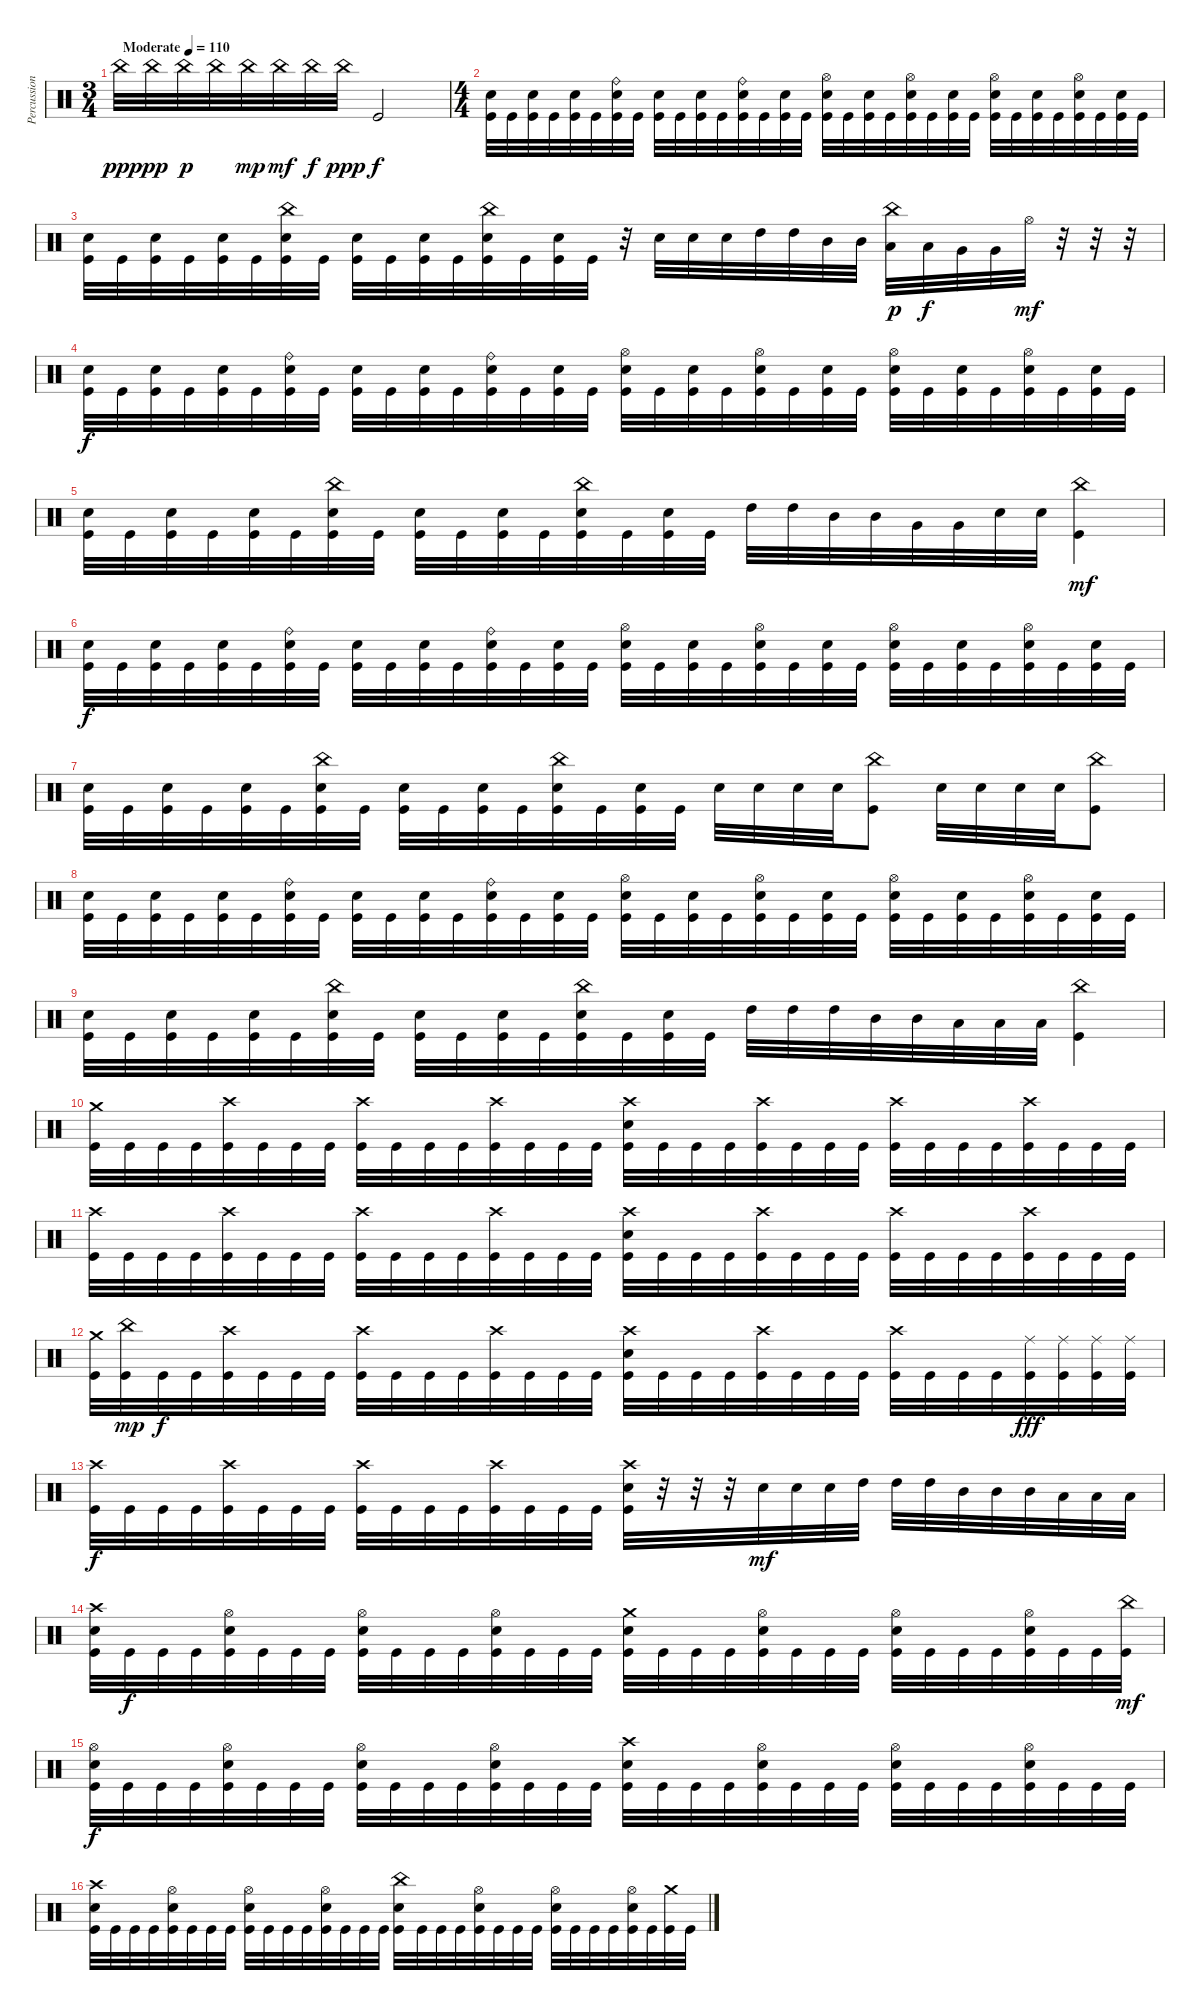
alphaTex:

\track ("Percussion" "Percussion") {instrument percussion}
\staff {score}
\articulation defaults
\ts (3 4)
\tempo (110 "Moderate")
\clef neutral
\ks c "China (hit)".32{dy ppp} "China (hit)".32{dy pp} "China (hit)".32{dy p} "China (hit)".32 "China (hit)".32{dy mp} "China (hit)".32{dy mf} "China (hit)".32{dy f} "China (hit)".32{dy ppp} "Kick (hit)".2{dy f}
|
\ts (4 4)
("Snare (hit) 2" "Kick (hit)").32 "Kick (hit)".32 ("Snare (hit) 2" "Kick (hit)").32 "Kick (hit)".32 ("Snare (hit) 2" "Kick (hit)").32 "Kick (hit)".32 ("Ride (bell)" "Snare (hit) 2" "Kick (hit)").32 "Kick (hit)".32 ("Snare (hit) 2" "Kick (hit)").32 "Kick (hit)".32 ("Snare (hit) 2" "Kick (hit)").32 "Kick (hit)".32 ("Ride (bell)" "Snare (hit) 2" "Kick (hit)").32 "Kick (hit)".32 ("Snare (hit) 2" "Kick (hit)").32 "Kick (hit)".32 ("Hi-Hat (open)" "Snare (hit) 2" "Kick (hit)").32 "Kick (hit)".32 ("Snare (hit) 2" "Kick (hit)").32 "Kick (hit)".32 ("Hi-Hat (open)" "Snare (hit) 2" "Kick (hit)").32 "Kick (hit)".32 ("Snare (hit) 2" "Kick (hit)").32 "Kick (hit)".32 ("Hi-Hat (open)" "Snare (hit) 2" "Kick (hit)").32 "Kick (hit)".32 ("Snare (hit) 2" "Kick (hit)").32 "Kick (hit)".32 ("Hi-Hat (open)" "Snare (hit) 2" "Kick (hit)").32 "Kick (hit)".32 ("Snare (hit) 2" "Kick (hit)").32 "Kick (hit)".32 |
("Snare (hit) 2" "Kick (hit)").32 "Kick (hit)".32 ("Snare (hit) 2" "Kick (hit)").32 "Kick (hit)".32 ("Snare (hit) 2" "Kick (hit)").32 "Kick (hit)".32 ("China (hit)" "Snare (hit) 2" "Kick (hit)").32 "Kick (hit)".32 ("Snare (hit) 2" "Kick (hit)").32 "Kick (hit)".32 ("Snare (hit) 2" "Kick (hit)").32 "Kick (hit)".32 ("China (hit)" "Snare (hit) 2" "Kick (hit)").32 "Kick (hit)".32 ("Snare (hit) 2" "Kick (hit)").32 "Kick (hit)".32 r.32 "Snare (hit) 2".32 "Snare (hit) 2".32 "Snare (hit) 2".32 "High Tom (hit)".32 "High Tom (hit)".32 "Mid Tom (hit)".32 "Mid Tom (hit)".32 ("China (hit)" "Low Tom (hit)").32{dy p} "Low Tom (hit)".32{dy f} "Very Low Tom (hit)".32 "Very Low Tom (hit)".32 "Hi-Hat (open)".32{dy mf} r.32 r.32 r.32 |
("Snare (hit) 2" "Kick (hit)").32{dy f} "Kick (hit)".32 ("Snare (hit) 2" "Kick (hit)").32 "Kick (hit)".32 ("Snare (hit) 2" "Kick (hit)").32 "Kick (hit)".32 ("Ride (bell)" "Snare (hit) 2" "Kick (hit)").32 "Kick (hit)".32 ("Snare (hit) 2" "Kick (hit)").32 "Kick (hit)".32 ("Snare (hit) 2" "Kick (hit)").32 "Kick (hit)".32 ("Ride (bell)" "Snare (hit) 2" "Kick (hit)").32 "Kick (hit)".32 ("Snare (hit) 2" "Kick (hit)").32 "Kick (hit)".32 ("Hi-Hat (open)" "Snare (hit) 2" "Kick (hit)").32 "Kick (hit)".32 ("Snare (hit) 2" "Kick (hit)").32 "Kick (hit)".32 ("Hi-Hat (open)" "Snare (hit) 2" "Kick (hit)").32 "Kick (hit)".32 ("Snare (hit) 2" "Kick (hit)").32 "Kick (hit)".32 ("Hi-Hat (open)" "Snare (hit) 2" "Kick (hit)").32 "Kick (hit)".32 ("Snare (hit) 2" "Kick (hit)").32 "Kick (hit)".32 ("Hi-Hat (open)" "Snare (hit) 2" "Kick (hit)").32 "Kick (hit)".32 ("Snare (hit) 2" "Kick (hit)").32 "Kick (hit)".32 |
("Snare (hit) 2" "Kick (hit)").32 "Kick (hit)".32 ("Snare (hit) 2" "Kick (hit)").32 "Kick (hit)".32 ("Snare (hit) 2" "Kick (hit)").32 "Kick (hit)".32 ("China (hit)" "Snare (hit) 2" "Kick (hit)").32 "Kick (hit)".32 ("Snare (hit) 2" "Kick (hit)").32 "Kick (hit)".32 ("Snare (hit) 2" "Kick (hit)").32 "Kick (hit)".32 ("China (hit)" "Snare (hit) 2" "Kick (hit)").32 "Kick (hit)".32 ("Snare (hit) 2" "Kick (hit)").32 "Kick (hit)".32 "High Tom (hit)".32 "High Tom (hit)".32 "Mid Tom (hit)".32 "Mid Tom (hit)".32 "Very Low Tom (hit)".32 "Very Low Tom (hit)".32 "Snare (hit) 2".32 "Snare (hit) 2".32 ("China (hit)" "Kick (hit)").4{dy mf} |
("Snare (hit) 2" "Kick (hit)").32{dy f} "Kick (hit)".32 ("Snare (hit) 2" "Kick (hit)").32 "Kick (hit)".32 ("Snare (hit) 2" "Kick (hit)").32 "Kick (hit)".32 ("Ride (bell)" "Snare (hit) 2" "Kick (hit)").32 "Kick (hit)".32 ("Snare (hit) 2" "Kick (hit)").32 "Kick (hit)".32 ("Snare (hit) 2" "Kick (hit)").32 "Kick (hit)".32 ("Ride (bell)" "Snare (hit) 2" "Kick (hit)").32 "Kick (hit)".32 ("Snare (hit) 2" "Kick (hit)").32 "Kick (hit)".32 ("Hi-Hat (open)" "Snare (hit) 2" "Kick (hit)").32 "Kick (hit)".32 ("Snare (hit) 2" "Kick (hit)").32 "Kick (hit)".32 ("Hi-Hat (open)" "Snare (hit) 2" "Kick (hit)").32 "Kick (hit)".32 ("Snare (hit) 2" "Kick (hit)").32 "Kick (hit)".32 ("Hi-Hat (open)" "Snare (hit) 2" "Kick (hit)").32 "Kick (hit)".32 ("Snare (hit) 2" "Kick (hit)").32 "Kick (hit)".32 ("Hi-Hat (open)" "Snare (hit) 2" "Kick (hit)").32 "Kick (hit)".32 ("Snare (hit) 2" "Kick (hit)").32 "Kick (hit)".32 |
("Snare (hit) 2" "Kick (hit)").32 "Kick (hit)".32 ("Snare (hit) 2" "Kick (hit)").32 "Kick (hit)".32 ("Snare (hit) 2" "Kick (hit)").32 "Kick (hit)".32 ("China (hit)" "Snare (hit) 2" "Kick (hit)").32 "Kick (hit)".32 ("Snare (hit) 2" "Kick (hit)").32 "Kick (hit)".32 ("Snare (hit) 2" "Kick (hit)").32 "Kick (hit)".32 ("China (hit)" "Snare (hit) 2" "Kick (hit)").32 "Kick (hit)".32 ("Snare (hit) 2" "Kick (hit)").32 "Kick (hit)".32 "Snare (hit) 2".32 "Snare (hit) 2".32 "Snare (hit) 2".32 "Snare (hit) 2".32 ("China (hit)" "Kick (hit)").8 "Snare (hit) 2".32 "Snare (hit) 2".32 "Snare (hit) 2".32 "Snare (hit) 2".32 ("China (hit)" "Kick (hit)").8 |
("Snare (hit) 2" "Kick (hit)").32 "Kick (hit)".32 ("Snare (hit) 2" "Kick (hit)").32 "Kick (hit)".32 ("Snare (hit) 2" "Kick (hit)").32 "Kick (hit)".32 ("Ride (bell)" "Snare (hit) 2" "Kick (hit)").32 "Kick (hit)".32 ("Snare (hit) 2" "Kick (hit)").32 "Kick (hit)".32 ("Snare (hit) 2" "Kick (hit)").32 "Kick (hit)".32 ("Ride (bell)" "Snare (hit) 2" "Kick (hit)").32 "Kick (hit)".32 ("Snare (hit) 2" "Kick (hit)").32 "Kick (hit)".32 ("Hi-Hat (open)" "Snare (hit) 2" "Kick (hit)").32 "Kick (hit)".32 ("Snare (hit) 2" "Kick (hit)").32 "Kick (hit)".32 ("Hi-Hat (open)" "Snare (hit) 2" "Kick (hit)").32 "Kick (hit)".32 ("Snare (hit) 2" "Kick (hit)").32 "Kick (hit)".32 ("Hi-Hat (open)" "Snare (hit) 2" "Kick (hit)").32 "Kick (hit)".32 ("Snare (hit) 2" "Kick (hit)").32 "Kick (hit)".32 ("Hi-Hat (open)" "Snare (hit) 2" "Kick (hit)").32 "Kick (hit)".32 ("Snare (hit) 2" "Kick (hit)").32 "Kick (hit)".32 |
("Snare (hit) 2" "Kick (hit)").32 "Kick (hit)".32 ("Snare (hit) 2" "Kick (hit)").32 "Kick (hit)".32 ("Snare (hit) 2" "Kick (hit)").32 "Kick (hit)".32 ("China (hit)" "Snare (hit) 2" "Kick (hit)").32 "Kick (hit)".32 ("Snare (hit) 2" "Kick (hit)").32 "Kick (hit)".32 ("Snare (hit) 2" "Kick (hit)").32 "Kick (hit)".32 ("China (hit)" "Snare (hit) 2" "Kick (hit)").32 "Kick (hit)".32 ("Snare (hit) 2" "Kick (hit)").32 "Kick (hit)".32 "High Tom (hit)".32 "High Tom (hit)".32 "High Tom (hit)".32 "Mid Tom (hit)".32 "Mid Tom (hit)".32 "Low Tom (hit)".32 "Low Tom (hit)".32 "Low Tom (hit)".32 ("China (hit)" "Kick (hit)").4 |
("Crash medium (hit)" "Kick (hit)").32 "Kick (hit)".32 "Kick (hit)".32 "Kick (hit)".32 ("Crash high (hit)" "Kick (hit)").32 "Kick (hit)".32 "Kick (hit)".32 "Kick (hit)".32 ("Crash high (hit)" "Kick (hit)").32 "Kick (hit)".32 "Kick (hit)".32 "Kick (hit)".32 ("Crash high (hit)" "Kick (hit)").32 "Kick (hit)".32 "Kick (hit)".32 "Kick (hit)".32 ("Crash high (hit)" "Snare (hit) 2" "Kick (hit)").32 "Kick (hit)".32 "Kick (hit)".32 "Kick (hit)".32 ("Crash high (hit)" "Kick (hit)").32 "Kick (hit)".32 "Kick (hit)".32 "Kick (hit)".32 ("Crash high (hit)" "Kick (hit)").32 "Kick (hit)".32 "Kick (hit)".32 "Kick (hit)".32 ("Crash high (hit)" "Kick (hit)").32 "Kick (hit)".32 "Kick (hit)".32 "Kick (hit)".32 |
("Crash high (hit)" "Kick (hit)").32 "Kick (hit)".32 "Kick (hit)".32 "Kick (hit)".32 ("Crash high (hit)" "Kick (hit)").32 "Kick (hit)".32 "Kick (hit)".32 "Kick (hit)".32 ("Crash high (hit)" "Kick (hit)").32 "Kick (hit)".32 "Kick (hit)".32 "Kick (hit)".32 ("Crash high (hit)" "Kick (hit)").32 "Kick (hit)".32 "Kick (hit)".32 "Kick (hit)".32 ("Crash high (hit)" "Snare (hit) 2" "Kick (hit)").32 "Kick (hit)".32 "Kick (hit)".32 "Kick (hit)".32 ("Crash high (hit)" "Kick (hit)").32 "Kick (hit)".32 "Kick (hit)".32 "Kick (hit)".32 ("Crash high (hit)" "Kick (hit)").32 "Kick (hit)".32 "Kick (hit)".32 "Kick (hit)".32 ("Crash high (hit)" "Kick (hit)").32 "Kick (hit)".32 "Kick (hit)".32 "Kick (hit)".32 |
("Crash medium (hit)" "Kick (hit)").32 ("China (hit)" "Kick (hit)").32{dy mp} "Kick (hit)".32{dy f} "Kick (hit)".32 ("Crash high (hit)" "Kick (hit)").32 "Kick (hit)".32 "Kick (hit)".32 "Kick (hit)".32 ("Crash high (hit)" "Kick (hit)").32 "Kick (hit)".32 "Kick (hit)".32 "Kick (hit)".32 ("Crash high (hit)" "Kick (hit)").32 "Kick (hit)".32 "Kick (hit)".32 "Kick (hit)".32 ("Crash high (hit)" "Snare (hit) 2" "Kick (hit)").32 "Kick (hit)".32 "Kick (hit)".32 "Kick (hit)".32 ("Crash high (hit)" "Kick (hit)").32 "Kick (hit)".32 "Kick (hit)".32 "Kick (hit)".32 ("Crash high (hit)" "Kick (hit)").32 "Kick (hit)".32 "Kick (hit)".32 "Kick (hit)".32 ("Ride (middle)" "Kick (hit)").32{dy fff} ("Ride (middle)" "Kick (hit)").32 ("Ride (middle)" "Kick (hit)").32 ("Ride (middle)" "Kick (hit)").32 |
("Crash high (hit)" "Kick (hit)").32{dy f} "Kick (hit)".32 "Kick (hit)".32 "Kick (hit)".32 ("Crash high (hit)" "Kick (hit)").32 "Kick (hit)".32 "Kick (hit)".32 "Kick (hit)".32 ("Crash high (hit)" "Kick (hit)").32 "Kick (hit)".32 "Kick (hit)".32 "Kick (hit)".32 ("Crash high (hit)" "Kick (hit)").32 "Kick (hit)".32 "Kick (hit)".32 "Kick (hit)".32 ("Crash high (hit)" "Snare (hit) 2" "Kick (hit)").32 r.32 r.32 r.32 "Snare (hit) 2".32{dy mf} "Snare (hit) 2".32 "Snare (hit) 2".32 "High Tom (hit)".32 "High Tom (hit)".32 "High Tom (hit)".32 "Mid Tom (hit)".32 "Mid Tom (hit)".32 "Mid Tom (hit)".32 "Low Tom (hit)".32 "Low Tom (hit)".32 "Low Tom (hit)".32 |
("Crash high (hit)" "Snare (hit) 2" "Kick (hit)").32 "Kick (hit)".32{dy f} "Kick (hit)".32 "Kick (hit)".32 ("Hi-Hat (open)" "Snare (hit) 2" "Kick (hit)").32 "Kick (hit)".32 "Kick (hit)".32 "Kick (hit)".32 ("Hi-Hat (open)" "Snare (hit) 2" "Kick (hit)").32 "Kick (hit)".32 "Kick (hit)".32 "Kick (hit)".32 ("Hi-Hat (open)" "Snare (hit) 2" "Kick (hit)").32 "Kick (hit)".32 "Kick (hit)".32 "Kick (hit)".32 ("Crash medium (hit)" "Snare (hit) 2" "Kick (hit)").32 "Kick (hit)".32 "Kick (hit)".32 "Kick (hit)".32 ("Hi-Hat (open)" "Snare (hit) 2" "Kick (hit)").32 "Kick (hit)".32 "Kick (hit)".32 "Kick (hit)".32 ("Hi-Hat (open)" "Snare (hit) 2" "Kick (hit)").32 "Kick (hit)".32 "Kick (hit)".32 "Kick (hit)".32 ("Hi-Hat (open)" "Snare (hit) 2" "Kick (hit)").32 "Kick (hit)".32 "Kick (hit)".32 ("China (hit)" "Kick (hit)").32{dy mf} |
("Hi-Hat (open)" "Snare (hit) 2" "Kick (hit)").32{dy f} "Kick (hit)".32 "Kick (hit)".32 "Kick (hit)".32 ("Hi-Hat (open)" "Snare (hit) 2" "Kick (hit)").32 "Kick (hit)".32 "Kick (hit)".32 "Kick (hit)".32 ("Hi-Hat (open)" "Snare (hit) 2" "Kick (hit)").32 "Kick (hit)".32 "Kick (hit)".32 "Kick (hit)".32 ("Hi-Hat (open)" "Snare (hit) 2" "Kick (hit)").32 "Kick (hit)".32 "Kick (hit)".32 "Kick (hit)".32 ("Crash high (hit)" "Snare (hit) 2" "Kick (hit)").32 "Kick (hit)".32 "Kick (hit)".32 "Kick (hit)".32 ("Hi-Hat (open)" "Snare (hit) 2" "Kick (hit)").32 "Kick (hit)".32 "Kick (hit)".32 "Kick (hit)".32 ("Hi-Hat (open)" "Snare (hit) 2" "Kick (hit)").32 "Kick (hit)".32 "Kick (hit)".32 "Kick (hit)".32 ("Hi-Hat (open)" "Snare (hit) 2" "Kick (hit)").32 "Kick (hit)".32 "Kick (hit)".32 "Kick (hit)".32 |
("Crash high (hit)" "Snare (hit) 2" "Kick (hit)").32 "Kick (hit)".32 "Kick (hit)".32 "Kick (hit)".32 ("Hi-Hat (open)" "Snare (hit) 2" "Kick (hit)").32 "Kick (hit)".32 "Kick (hit)".32 "Kick (hit)".32 ("Hi-Hat (open)" "Snare (hit) 2" "Kick (hit)").32 "Kick (hit)".32 "Kick (hit)".32 "Kick (hit)".32 ("Hi-Hat (open)" "Snare (hit) 2" "Kick (hit)").32 "Kick (hit)".32 "Kick (hit)".32 "Kick (hit)".32 ("China (hit)" "Snare (hit) 2" "Kick (hit)").32 "Kick (hit)".32 "Kick (hit)".32 "Kick (hit)".32 ("Hi-Hat (open)" "Snare (hit) 2" "Kick (hit)").32 "Kick (hit)".32 "Kick (hit)".32 "Kick (hit)".32 ("Hi-Hat (open)" "Snare (hit) 2" "Kick (hit)").32 "Kick (hit)".32 "Kick (hit)".32 "Kick (hit)".32 ("Hi-Hat (open)" "Snare (hit) 2" "Kick (hit)").32 "Kick (hit)".32 ("Crash medium (hit)" "Kick (hit)").32 "Kick (hit)".32
